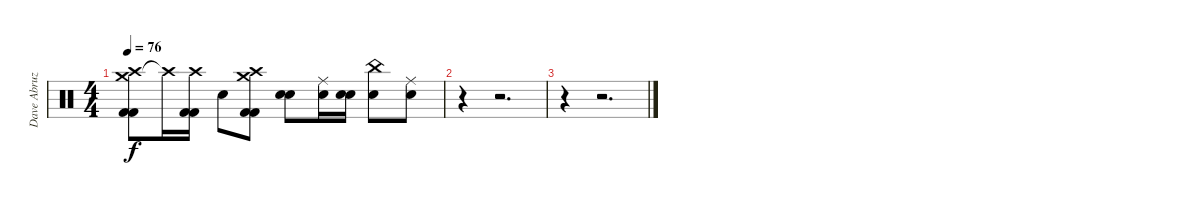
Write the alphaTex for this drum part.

\track ("Dave Abruzzese" "Dave Abruz") {instrument percussion}
\staff {score}
\articulation defaults
\ts (4 4)
\tempo 76
\clef neutral
\ks c
("Crash medium (hit)" "Kick (hit) 2" "Kick (hit) 2" "Crash high (hit)").8{dy f} "Crash high (hit)"{t}.16 ("Kick (hit) 2" "Kick (hit) 2" "Crash high (hit)").16 "Snare (hit)".8 ("Crash medium (hit)" "Kick (hit) 2" "Kick (hit) 2" "Crash high (hit)").8 ("Snare (hit)" "Snare (hit)").8 ("Snare (hit)" "Ride (middle)").16 ("Snare (hit)" "Snare (hit)").16 ("Snare (hit)" "China (hit)").8 ("Snare (hit)" "Ride (middle)").8 |
r.4 r.2{d} |
r.4 r.2{d}
